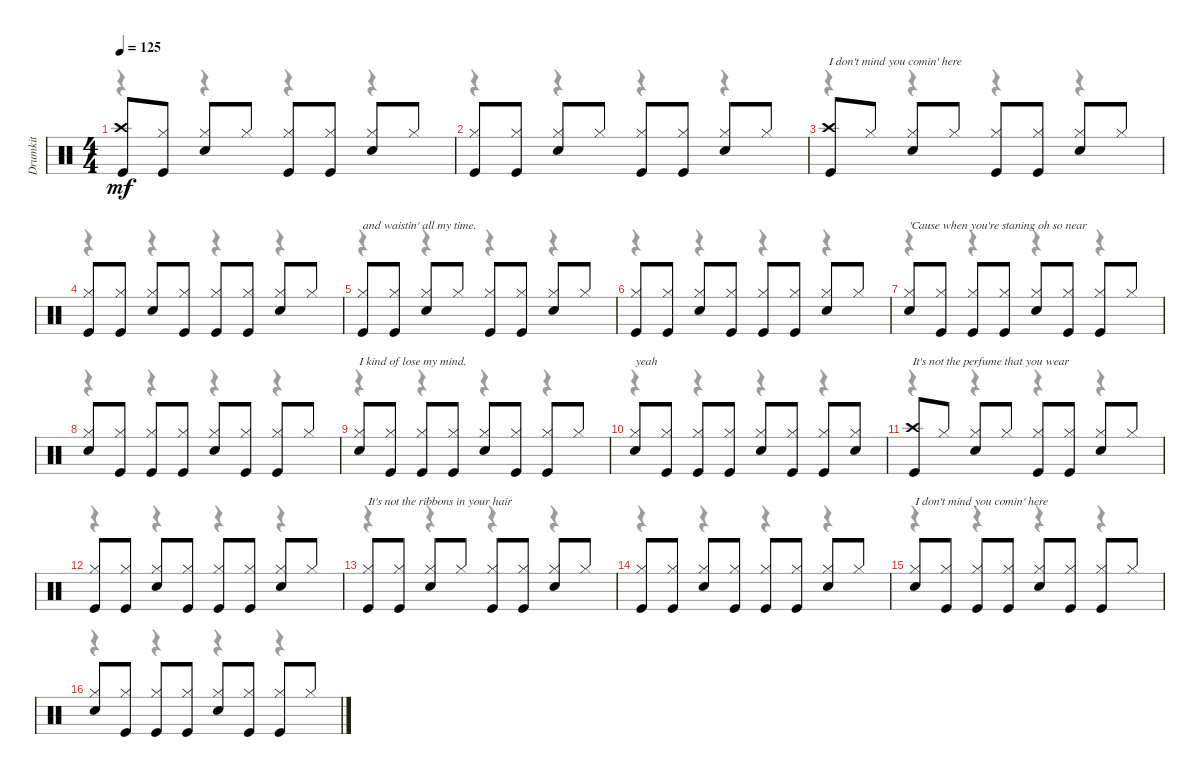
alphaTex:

\track ("Drumkit" "Drumkit") {instrument percussion}
\staff {score}
\articulation defaults
\voice
\ts (4 4)
\tempo 125
\clef neutral
\ks c
("Kick (hit)" "Crash high (hit)").8{dy mf} ("Hi-Hat (closed)" "Kick (hit)").8 ("Hi-Hat (closed)" "Snare (hit) 2").8 "Hi-Hat (closed)".8 ("Hi-Hat (closed)" "Kick (hit)").8 ("Hi-Hat (closed)" "Kick (hit)").8 ("Hi-Hat (closed)" "Snare (hit) 2").8 "Hi-Hat (closed)".8 |
("Hi-Hat (closed)" "Kick (hit)").8 ("Hi-Hat (closed)" "Kick (hit)").8 ("Hi-Hat (closed)" "Snare (hit) 2").8 "Hi-Hat (closed)".8 ("Hi-Hat (closed)" "Kick (hit)").8 ("Hi-Hat (closed)" "Kick (hit)").8 ("Hi-Hat (closed)" "Snare (hit) 2").8 "Hi-Hat (closed)".8 |
("Kick (hit)" "Crash high (hit)").8{txt "I don't mind you comin' here"} "Hi-Hat (closed)".8 ("Hi-Hat (closed)" "Snare (hit) 2").8 "Hi-Hat (closed)".8 ("Hi-Hat (closed)" "Kick (hit)").8 ("Hi-Hat (closed)" "Kick (hit)").8 ("Hi-Hat (closed)" "Snare (hit) 2").8 "Hi-Hat (closed)".8 |
("Hi-Hat (closed)" "Kick (hit)").8 ("Hi-Hat (closed)" "Kick (hit)").8 ("Hi-Hat (closed)" "Snare (hit) 2").8 ("Hi-Hat (closed)" "Kick (hit)").8 ("Hi-Hat (closed)" "Kick (hit)").8 ("Hi-Hat (closed)" "Kick (hit)").8 ("Hi-Hat (closed)" "Snare (hit) 2").8 "Hi-Hat (closed)".8 |
("Hi-Hat (closed)" "Kick (hit)").8{txt "and waistin' all my time."} ("Hi-Hat (closed)" "Kick (hit)").8 ("Hi-Hat (closed)" "Snare (hit) 2").8 "Hi-Hat (closed)".8 ("Hi-Hat (closed)" "Kick (hit)").8 ("Hi-Hat (closed)" "Kick (hit)").8 ("Hi-Hat (closed)" "Snare (hit) 2").8 "Hi-Hat (closed)".8 |
("Hi-Hat (closed)" "Kick (hit)").8 ("Hi-Hat (closed)" "Kick (hit)").8 ("Hi-Hat (closed)" "Snare (hit) 2").8 ("Hi-Hat (closed)" "Kick (hit)").8 ("Hi-Hat (closed)" "Kick (hit)").8 ("Hi-Hat (closed)" "Kick (hit)").8 ("Hi-Hat (closed)" "Snare (hit) 2").8 "Hi-Hat (closed)".8 |
("Hi-Hat (closed)" "Snare (hit) 2").8{txt "'Cause when you're staning oh so near"} ("Hi-Hat (closed)" "Kick (hit)").8 ("Hi-Hat (closed)" "Kick (hit)").8 ("Hi-Hat (closed)" "Kick (hit)").8 ("Hi-Hat (closed)" "Snare (hit) 2").8 ("Hi-Hat (closed)" "Kick (hit)").8 ("Hi-Hat (closed)" "Kick (hit)").8 "Hi-Hat (closed)".8 |
("Hi-Hat (closed)" "Snare (hit) 2").8 ("Hi-Hat (closed)" "Kick (hit)").8 ("Hi-Hat (closed)" "Kick (hit)").8 ("Hi-Hat (closed)" "Kick (hit)").8 ("Hi-Hat (closed)" "Snare (hit) 2").8 ("Hi-Hat (closed)" "Kick (hit)").8 ("Hi-Hat (closed)" "Kick (hit)").8 "Hi-Hat (closed)".8 |
("Hi-Hat (closed)" "Snare (hit) 2").8{txt "I kind of lose my mind."} ("Hi-Hat (closed)" "Kick (hit)").8 ("Hi-Hat (closed)" "Kick (hit)").8 ("Hi-Hat (closed)" "Kick (hit)").8 ("Hi-Hat (closed)" "Snare (hit) 2").8 ("Hi-Hat (closed)" "Kick (hit)").8 ("Hi-Hat (closed)" "Kick (hit)").8 "Hi-Hat (closed)".8 |
("Hi-Hat (closed)" "Snare (hit) 2").8{txt "yeah"} ("Hi-Hat (closed)" "Kick (hit)").8 ("Hi-Hat (closed)" "Kick (hit)").8 ("Hi-Hat (closed)" "Kick (hit)").8 ("Hi-Hat (closed)" "Snare (hit) 2").8 ("Hi-Hat (closed)" "Kick (hit)").8 ("Hi-Hat (closed)" "Kick (hit)").8 ("Hi-Hat (closed)" "Snare (hit) 2").8 |
("Kick (hit)" "Crash high (hit)").8{txt "It's not the perfume that you wear"} "Hi-Hat (closed)".8 ("Hi-Hat (closed)" "Snare (hit) 2").8 "Hi-Hat (closed)".8 ("Hi-Hat (closed)" "Kick (hit)").8 ("Hi-Hat (closed)" "Kick (hit)").8 ("Hi-Hat (closed)" "Snare (hit) 2").8 "Hi-Hat (closed)".8 |
("Hi-Hat (closed)" "Kick (hit)").8 ("Hi-Hat (closed)" "Kick (hit)").8 ("Hi-Hat (closed)" "Snare (hit) 2").8 ("Hi-Hat (closed)" "Kick (hit)").8 ("Hi-Hat (closed)" "Kick (hit)").8 ("Hi-Hat (closed)" "Kick (hit)").8 ("Hi-Hat (closed)" "Snare (hit) 2").8 "Hi-Hat (closed)".8 |
("Hi-Hat (closed)" "Kick (hit)").8{txt "It's not the ribbons in your hair"} ("Hi-Hat (closed)" "Kick (hit)").8 ("Hi-Hat (closed)" "Snare (hit) 2").8 "Hi-Hat (closed)".8 ("Hi-Hat (closed)" "Kick (hit)").8 ("Hi-Hat (closed)" "Kick (hit)").8 ("Hi-Hat (closed)" "Snare (hit) 2").8 "Hi-Hat (closed)".8 |
("Hi-Hat (closed)" "Kick (hit)").8 ("Hi-Hat (closed)" "Kick (hit)").8 ("Hi-Hat (closed)" "Snare (hit) 2").8 ("Hi-Hat (closed)" "Kick (hit)").8 ("Hi-Hat (closed)" "Kick (hit)").8 ("Hi-Hat (closed)" "Kick (hit)").8 ("Hi-Hat (closed)" "Snare (hit) 2").8 "Hi-Hat (closed)".8 |
("Hi-Hat (closed)" "Snare (hit) 2").8{txt "I don't mind you comin' here"} ("Hi-Hat (closed)" "Kick (hit)").8 ("Hi-Hat (closed)" "Kick (hit)").8 ("Hi-Hat (closed)" "Kick (hit)").8 ("Hi-Hat (closed)" "Snare (hit) 2").8 ("Hi-Hat (closed)" "Kick (hit)").8 ("Hi-Hat (closed)" "Kick (hit)").8 "Hi-Hat (closed)".8 |
("Hi-Hat (closed)" "Snare (hit) 2").8 ("Hi-Hat (closed)" "Kick (hit)").8 ("Hi-Hat (closed)" "Kick (hit)").8 ("Hi-Hat (closed)" "Kick (hit)").8 ("Hi-Hat (closed)" "Snare (hit) 2").8 ("Hi-Hat (closed)" "Kick (hit)").8 ("Hi-Hat (closed)" "Kick (hit)").8 "Hi-Hat (closed)".8
\voice
\clef neutral
\ottava regular
\simile none
\ks c
r.4{dy f} r.4 r.4 r.4 |
r.4 r.4 r.4 r.4 |
r.4 r.4 r.4 r.4 |
r.4 r.4 r.4 r.4 |
r.4 r.4 r.4 r.4 |
r.4 r.4 r.4 r.4 |
r.4 r.4 r.4 r.4 |
r.4 r.4 r.4 r.4 |
r.4 r.4 r.4 r.4 |
r.4 r.4 r.4 r.4 |
r.4 r.4 r.4 r.4 |
r.4 r.4 r.4 r.4 |
r.4 r.4 r.4 r.4 |
r.4 r.4 r.4 r.4 |
r.4 r.4 r.4 r.4 |
r.4 r.4 r.4 r.4
